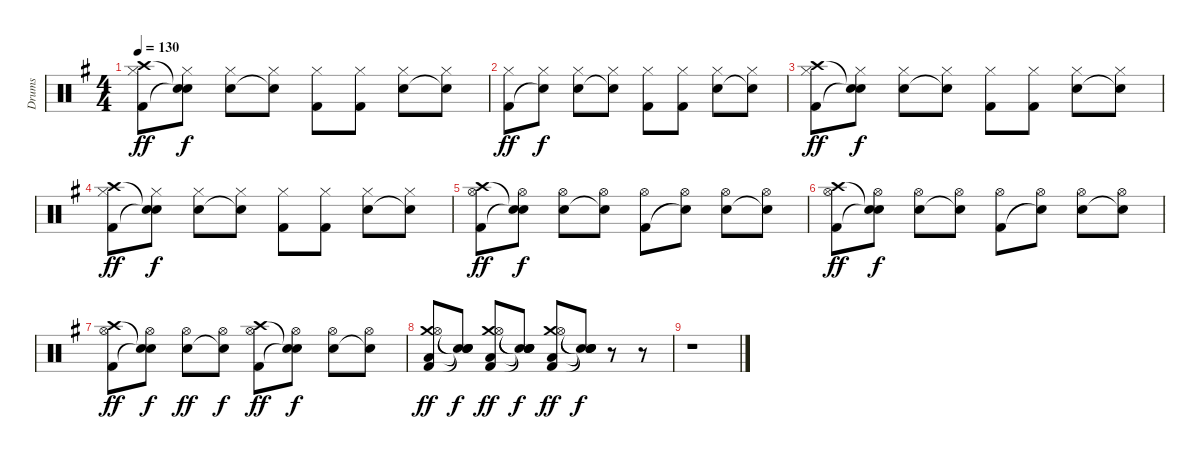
\track ("Drums" "Drums") {instrument percussion}
\staff {score}
\articulation defaults
\ts (4 4)
\tempo 130
\clef neutral
\ks g
("Hi-Hat (closed)" "Crash high (hit)" "Kick (hit) 2").8{dy ff} ("Hi-Hat (closed)" "Snare (hit)"{t} "Snare (hit)"{t}).8{dy f} ("Hi-Hat (closed)" "Electric Snare (hit)").8 ("Hi-Hat (closed)" "Snare (hit)"{t}).8 ("Hi-Hat (closed)" "Kick (hit) 2").8 ("Hi-Hat (closed)" "Kick (hit) 2").8 ("Hi-Hat (closed)" "Electric Snare (hit)").8 ("Hi-Hat (closed)" "Snare (hit)"{t}).8 |
("Hi-Hat (closed)" "Kick (hit) 2").8{dy ff} ("Hi-Hat (closed)" "Snare (hit)"{t}).8{dy f} ("Hi-Hat (closed)" "Electric Snare (hit)").8 ("Hi-Hat (closed)" "Snare (hit)"{t}).8 ("Hi-Hat (closed)" "Kick (hit) 2").8 ("Hi-Hat (closed)" "Kick (hit) 2").8 ("Hi-Hat (closed)" "Electric Snare (hit)").8 ("Hi-Hat (closed)" "Snare (hit)"{t}).8 |
("Hi-Hat (closed)" "Crash high (hit)" "Kick (hit) 2").8{dy ff} ("Hi-Hat (closed)" "Snare (hit)"{t} "Snare (hit)"{t}).8{dy f} ("Hi-Hat (closed)" "Electric Snare (hit)").8 ("Hi-Hat (closed)" "Snare (hit)"{t}).8 ("Hi-Hat (closed)" "Kick (hit) 2").8 ("Hi-Hat (closed)" "Kick (hit) 2").8 ("Hi-Hat (closed)" "Electric Snare (hit)").8 ("Hi-Hat (closed)" "Snare (hit)"{t}).8 |
("Hi-Hat (closed)" "Crash high (hit)" "Kick (hit) 2").8{dy ff} ("Hi-Hat (closed)" "Snare (hit)"{t} "Snare (hit)"{t}).8{dy f} ("Hi-Hat (closed)" "Electric Snare (hit)").8 ("Hi-Hat (closed)" "Snare (hit)"{t}).8 ("Hi-Hat (closed)" "Kick (hit) 2").8 ("Hi-Hat (closed)" "Kick (hit) 2").8 ("Hi-Hat (closed)" "Electric Snare (hit)").8 ("Hi-Hat (closed)" "Snare (hit)"{t}).8 |
("Hi-Hat (open)" "Crash high (hit)" "Kick (hit) 2").8{dy ff} ("Hi-Hat (open)" "Snare (hit)"{t} "Snare (hit)"{t}).8{dy f} ("Hi-Hat (open)" "Electric Snare (hit)").8 ("Hi-Hat (open)" "Snare (hit)"{t}).8 ("Hi-Hat (open)" "Kick (hit) 2").8 ("Hi-Hat (open)" "Snare (hit)"{t}).8 ("Hi-Hat (open)" "Electric Snare (hit)").8 ("Hi-Hat (open)" "Snare (hit)"{t}).8 |
("Hi-Hat (open)" "Crash high (hit)" "Kick (hit) 2").8{dy ff} ("Hi-Hat (open)" "Snare (hit)"{t} "Snare (hit)"{t}).8{dy f} ("Hi-Hat (open)" "Electric Snare (hit)").8 ("Hi-Hat (open)" "Snare (hit)"{t}).8 ("Hi-Hat (open)" "Kick (hit) 2").8 ("Hi-Hat (open)" "Snare (hit)"{t}).8 ("Hi-Hat (open)" "Electric Snare (hit)").8 ("Hi-Hat (open)" "Snare (hit)"{t}).8 |
("Hi-Hat (open)" "Crash high (hit)" "Kick (hit) 2").8{dy ff} ("Hi-Hat (open)" "Snare (hit)"{t} "Snare (hit)"{t}).8{dy f} ("Hi-Hat (open)" "Electric Snare (hit)").8{dy ff} ("Hi-Hat (open)" "Snare (hit)"{t}).8{dy f} ("Hi-Hat (open)" "Crash high (hit)" "Kick (hit) 2").8{dy ff} ("Hi-Hat (open)" "Snare (hit)"{t} "Snare (hit)"{t}).8{dy f} ("Hi-Hat (open)" "Electric Snare (hit)").8 ("Hi-Hat (open)" "Snare (hit)"{t}).8 |
("Crash medium (hit)" "Kick (hit) 2" "Low Floor Tom (hit)" "Hi-Hat (open)").8{dy ff} ("Snare (hit)"{t} "Snare (hit)"{t} "Snare (hit)"{t} "Snare (hit)"{t}).8{dy f} ("Crash medium (hit)" "Kick (hit) 2" "Low Floor Tom (hit)" "Hi-Hat (open)").8{dy ff} ("Snare (hit)"{t} "Snare (hit)"{t} "Snare (hit)"{t} "Snare (hit)"{t}).8{dy f} ("Crash medium (hit)" "Kick (hit) 2" "Low Floor Tom (hit)" "Hi-Hat (open)").8{dy ff} ("Snare (hit)"{t} "Snare (hit)"{t} "Snare (hit)"{t} "Snare (hit)"{t}).8{dy f} r.8 r.8 |
r.1
